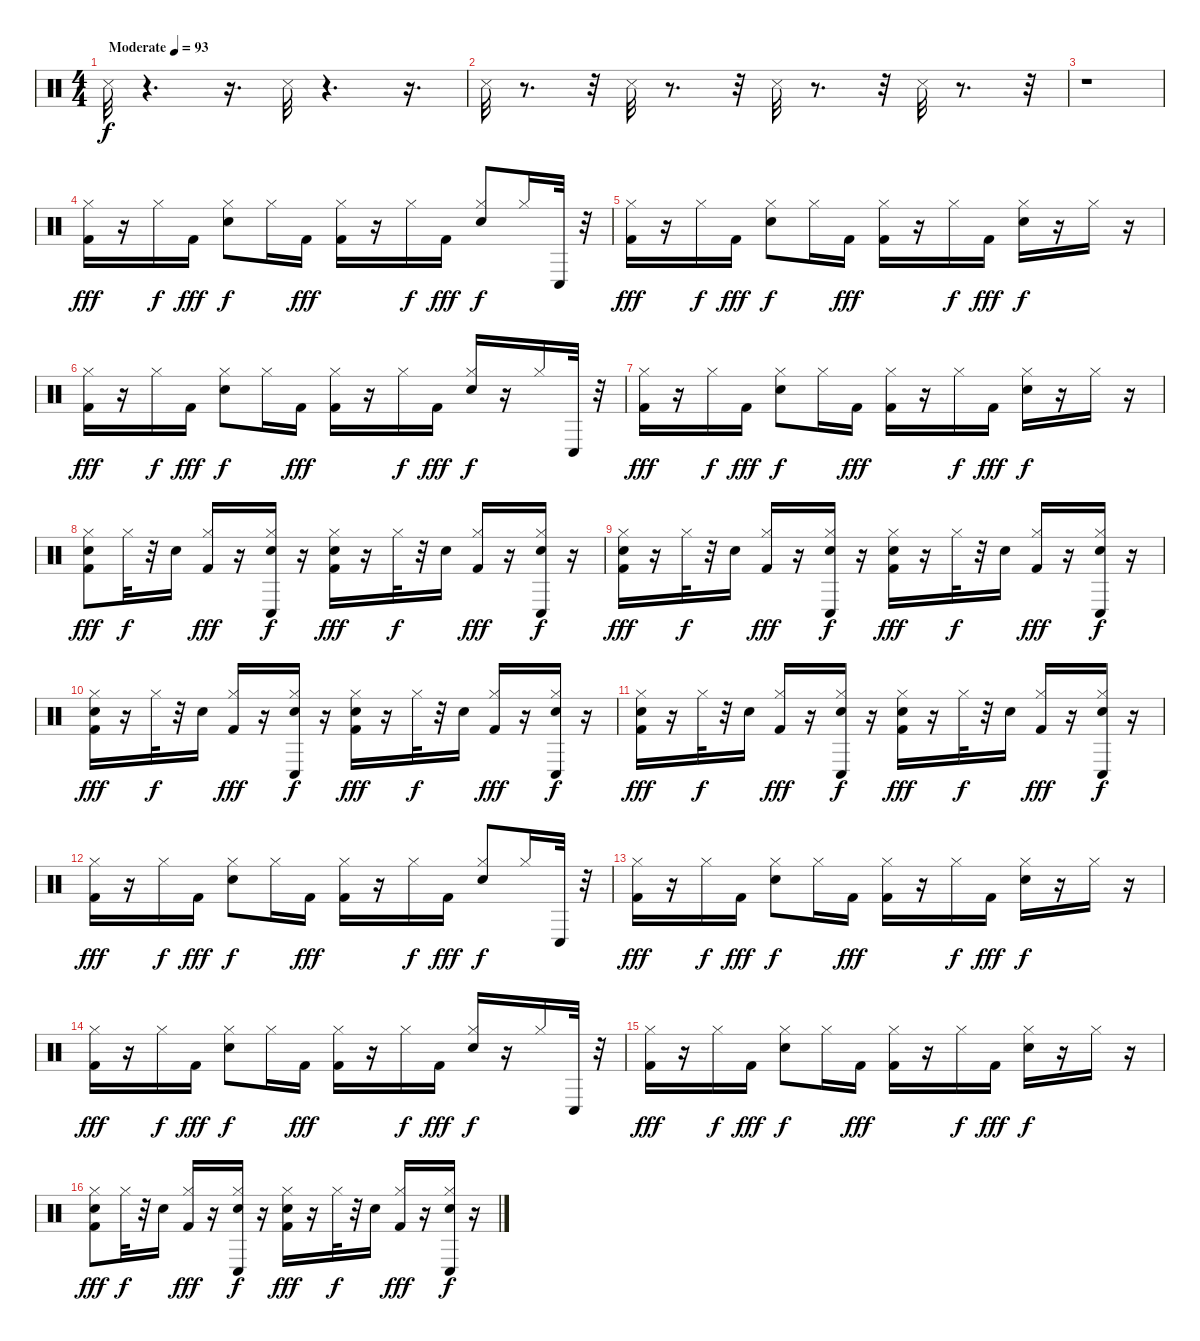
\track "" {instrument percussion}
\staff {score}
\articulation defaults
\ts (4 4)
\tempo (93 "Moderate")
\clef neutral
\ks c "Snare (side stick) 3".32{dy f}
r.4{d} r.16{d} "Snare (side stick) 3".32 r.4{d} r.16{d} |
"Snare (side stick) 3".32 r.8{d} r.32 "Snare (side stick) 3".32 r.8{d} r.32 "Snare (side stick) 3".32 r.8{d} r.32 "Snare (side stick) 3".32 r.8{d} r.32 |
r.1 |
("Kick (hit) 2" "Hi-Hat (closed)").16{dy fff} r.16 "Hi-Hat (closed)".16{dy f} "Kick (hit) 2".16{dy fff} ("Snare (hit) 2" "Hi-Hat (closed)").8{dy f} "Hi-Hat (closed)".16 "Kick (hit) 2".16{dy fff} ("Kick (hit) 2" "Hi-Hat (closed)").16 r.16 "Hi-Hat (closed)".16{dy f} "Kick (hit) 2".16{dy fff} ("Snare (hit) 2" "Hi-Hat (closed)").8{dy f} "Hi-Hat (closed)".16 "Conga low (hit)".32 r.32 |
("Kick (hit) 2" "Hi-Hat (closed)").16{dy fff} r.16 "Hi-Hat (closed)".16{dy f} "Kick (hit) 2".16{dy fff} ("Snare (hit) 2" "Hi-Hat (closed)").8{dy f} "Hi-Hat (closed)".16 "Kick (hit) 2".16{dy fff} ("Kick (hit) 2" "Hi-Hat (closed)").16 r.16 "Hi-Hat (closed)".16{dy f} "Kick (hit) 2".16{dy fff} ("Snare (hit) 2" "Hi-Hat (closed)").16{dy f} r.16 "Hi-Hat (closed)".16 r.16 |
("Kick (hit) 2" "Hi-Hat (closed)").16{dy fff} r.16 "Hi-Hat (closed)".16{dy f} "Kick (hit) 2".16{dy fff} ("Snare (hit) 2" "Hi-Hat (closed)").8{dy f} "Hi-Hat (closed)".16 "Kick (hit) 2".16{dy fff} ("Kick (hit) 2" "Hi-Hat (closed)").16 r.16 "Hi-Hat (closed)".16{dy f} "Kick (hit) 2".16{dy fff} ("Snare (hit) 2" "Hi-Hat (closed)").16{dy f} r.16 "Hi-Hat (closed)".16 "Conga low (hit)".32 r.32 |
("Kick (hit) 2" "Hi-Hat (closed)").16{dy fff} r.16 "Hi-Hat (closed)".16{dy f} "Kick (hit) 2".16{dy fff} ("Snare (hit) 2" "Hi-Hat (closed)").8{dy f} "Hi-Hat (closed)".16 "Kick (hit) 2".16{dy fff} ("Kick (hit) 2" "Hi-Hat (closed)").16 r.16 "Hi-Hat (closed)".16{dy f} "Kick (hit) 2".16{dy fff} ("Snare (hit) 2" "Hi-Hat (closed)").16{dy f} r.16 "Hi-Hat (closed)".16 r.16 |
("Kick (hit) 2" "Snare (hit) 2" "Hi-Hat (closed)").8{dy fff} "Hi-Hat (closed)".32{dy f} r.32 "Snare (hit) 2".16 ("Kick (hit) 2" "Hi-Hat (closed)").16{dy fff} r.16 ("Snare (hit) 2" "Hi-Hat (closed)" "Conga low (hit)").16{dy f} r.16 ("Kick (hit) 2" "Snare (hit) 2" "Hi-Hat (closed)").16{dy fff} r.16 "Hi-Hat (closed)".32{dy f} r.32 "Snare (hit) 2".16 ("Kick (hit) 2" "Hi-Hat (closed)").16{dy fff} r.16 ("Hi-Hat (closed)" "Snare (hit) 2" "Conga low (hit)").16{dy f} r.16 |
("Kick (hit) 2" "Snare (hit) 2" "Hi-Hat (closed)").16{dy fff} r.16 "Hi-Hat (closed)".32{dy f} r.32 "Snare (hit) 2".16 ("Kick (hit) 2" "Hi-Hat (closed)").16{dy fff} r.16 ("Snare (hit) 2" "Hi-Hat (closed)" "Conga low (hit)").16{dy f} r.16 ("Kick (hit) 2" "Snare (hit) 2" "Hi-Hat (closed)").16{dy fff} r.16 "Hi-Hat (closed)".32{dy f} r.32 "Snare (hit) 2".16 ("Kick (hit) 2" "Hi-Hat (closed)").16{dy fff} r.16 ("Conga low (hit)" "Snare (hit) 2" "Hi-Hat (closed)").16{dy f} r.16 |
("Kick (hit) 2" "Snare (hit) 2" "Hi-Hat (closed)").16{dy fff} r.16 "Hi-Hat (closed)".32{dy f} r.32 "Snare (hit) 2".16 ("Kick (hit) 2" "Hi-Hat (closed)").16{dy fff} r.16 ("Snare (hit) 2" "Hi-Hat (closed)" "Conga low (hit)").16{dy f} r.16 ("Hi-Hat (closed)" "Kick (hit) 2" "Snare (hit) 2").16{dy fff} r.16 "Hi-Hat (closed)".32{dy f} r.32 "Snare (hit) 2".16 ("Hi-Hat (closed)" "Kick (hit) 2").16{dy fff} r.16 ("Hi-Hat (closed)" "Snare (hit) 2" "Conga low (hit)").16{dy f} r.16 |
("Kick (hit) 2" "Snare (hit) 2" "Hi-Hat (closed)").16{dy fff} r.16 "Hi-Hat (closed)".32{dy f} r.32 "Snare (hit) 2".16 ("Hi-Hat (closed)" "Kick (hit) 2").16{dy fff} r.16 ("Hi-Hat (closed)" "Snare (hit) 2" "Conga low (hit)").16{dy f} r.16 ("Kick (hit) 2" "Snare (hit) 2" "Hi-Hat (closed)").16{dy fff} r.16 "Hi-Hat (closed)".32{dy f} r.32 "Snare (hit) 2".16 ("Hi-Hat (closed)" "Kick (hit) 2").16{dy fff} r.16 ("Hi-Hat (closed)" "Conga low (hit)" "Snare (hit) 2").16{dy f} r.16 |
("Kick (hit) 2" "Hi-Hat (closed)").16{dy fff} r.16 "Hi-Hat (closed)".16{dy f} "Kick (hit) 2".16{dy fff} ("Snare (hit) 2" "Hi-Hat (closed)").8{dy f} "Hi-Hat (closed)".16 "Kick (hit) 2".16{dy fff} ("Kick (hit) 2" "Hi-Hat (closed)").16 r.16 "Hi-Hat (closed)".16{dy f} "Kick (hit) 2".16{dy fff} ("Snare (hit) 2" "Hi-Hat (closed)").8{dy f} "Hi-Hat (closed)".16 "Conga low (hit)".32 r.32 |
("Kick (hit) 2" "Hi-Hat (closed)").16{dy fff} r.16 "Hi-Hat (closed)".16{dy f} "Kick (hit) 2".16{dy fff} ("Snare (hit) 2" "Hi-Hat (closed)").8{dy f} "Hi-Hat (closed)".16 "Kick (hit) 2".16{dy fff} ("Kick (hit) 2" "Hi-Hat (closed)").16 r.16 "Hi-Hat (closed)".16{dy f} "Kick (hit) 2".16{dy fff} ("Snare (hit) 2" "Hi-Hat (closed)").16{dy f} r.16 "Hi-Hat (closed)".16 r.16 |
("Kick (hit) 2" "Hi-Hat (closed)").16{dy fff} r.16 "Hi-Hat (closed)".16{dy f} "Kick (hit) 2".16{dy fff} ("Snare (hit) 2" "Hi-Hat (closed)").8{dy f} "Hi-Hat (closed)".16 "Kick (hit) 2".16{dy fff} ("Kick (hit) 2" "Hi-Hat (closed)").16 r.16 "Hi-Hat (closed)".16{dy f} "Kick (hit) 2".16{dy fff} ("Snare (hit) 2" "Hi-Hat (closed)").16{dy f} r.16 "Hi-Hat (closed)".16 "Conga low (hit)".32 r.32 |
("Kick (hit) 2" "Hi-Hat (closed)").16{dy fff} r.16 "Hi-Hat (closed)".16{dy f} "Kick (hit) 2".16{dy fff} ("Snare (hit) 2" "Hi-Hat (closed)").8{dy f} "Hi-Hat (closed)".16 "Kick (hit) 2".16{dy fff} ("Kick (hit) 2" "Hi-Hat (closed)").16 r.16 "Hi-Hat (closed)".16{dy f} "Kick (hit) 2".16{dy fff} ("Snare (hit) 2" "Hi-Hat (closed)").16{dy f} r.16 "Hi-Hat (closed)".16 r.16 |
("Kick (hit) 2" "Snare (hit) 2" "Hi-Hat (closed)").8{dy fff} "Hi-Hat (closed)".32{dy f} r.32 "Snare (hit) 2".16 ("Kick (hit) 2" "Hi-Hat (closed)").16{dy fff} r.16 ("Snare (hit) 2" "Hi-Hat (closed)" "Conga low (hit)").16{dy f} r.16 ("Kick (hit) 2" "Snare (hit) 2" "Hi-Hat (closed)").16{dy fff} r.16 "Hi-Hat (closed)".32{dy f} r.32 "Snare (hit) 2".16 ("Kick (hit) 2" "Hi-Hat (closed)").16{dy fff} r.16 ("Hi-Hat (closed)" "Snare (hit) 2" "Conga low (hit)").16{dy f} r.16
